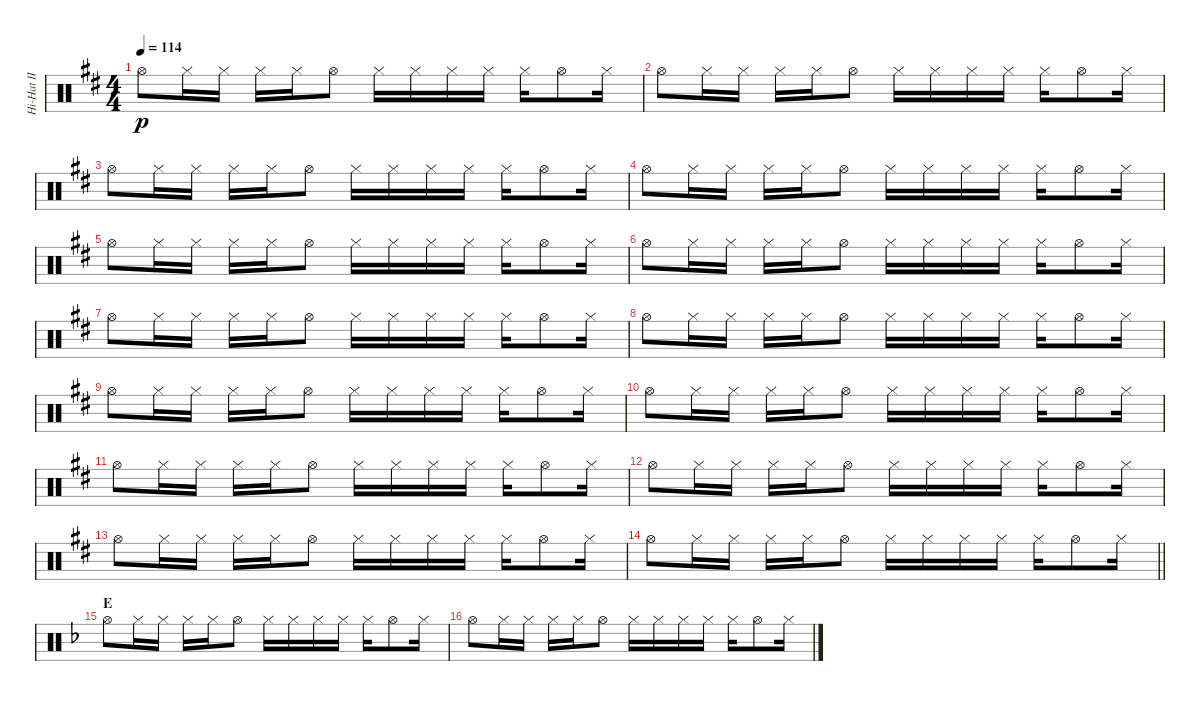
\track ("Hi-Hat II" "Hi-Hat II") {instrument percussion}
\staff {score}
\articulation defaults
\ts (4 4)
\tempo 114
\clef neutral
\ks d "Hi-Hat (open)".8{dy p} "Hi-Hat (closed)".16 "Hi-Hat (closed)".16 "Hi-Hat (closed)".16 "Hi-Hat (closed)".16 "Hi-Hat (open)".8 "Hi-Hat (closed)".16 "Hi-Hat (closed)".16 "Hi-Hat (closed)".16 "Hi-Hat (closed)".16 "Hi-Hat (closed)".16 "Hi-Hat (open)".8 "Hi-Hat (closed)".16
|
"Hi-Hat (open)".8 "Hi-Hat (closed)".16 "Hi-Hat (closed)".16 "Hi-Hat (closed)".16 "Hi-Hat (closed)".16 "Hi-Hat (open)".8 "Hi-Hat (closed)".16 "Hi-Hat (closed)".16 "Hi-Hat (closed)".16 "Hi-Hat (closed)".16 "Hi-Hat (closed)".16 "Hi-Hat (open)".8 "Hi-Hat (closed)".16 |
"Hi-Hat (open)".8 "Hi-Hat (closed)".16 "Hi-Hat (closed)".16 "Hi-Hat (closed)".16 "Hi-Hat (closed)".16 "Hi-Hat (open)".8 "Hi-Hat (closed)".16 "Hi-Hat (closed)".16 "Hi-Hat (closed)".16 "Hi-Hat (closed)".16 "Hi-Hat (closed)".16 "Hi-Hat (open)".8 "Hi-Hat (closed)".16 |
"Hi-Hat (open)".8 "Hi-Hat (closed)".16 "Hi-Hat (closed)".16 "Hi-Hat (closed)".16 "Hi-Hat (closed)".16 "Hi-Hat (open)".8 "Hi-Hat (closed)".16 "Hi-Hat (closed)".16 "Hi-Hat (closed)".16 "Hi-Hat (closed)".16 "Hi-Hat (closed)".16 "Hi-Hat (open)".8 "Hi-Hat (closed)".16 |
"Hi-Hat (open)".8 "Hi-Hat (closed)".16 "Hi-Hat (closed)".16 "Hi-Hat (closed)".16 "Hi-Hat (closed)".16 "Hi-Hat (open)".8 "Hi-Hat (closed)".16 "Hi-Hat (closed)".16 "Hi-Hat (closed)".16 "Hi-Hat (closed)".16 "Hi-Hat (closed)".16 "Hi-Hat (open)".8 "Hi-Hat (closed)".16 |
"Hi-Hat (open)".8 "Hi-Hat (closed)".16 "Hi-Hat (closed)".16 "Hi-Hat (closed)".16 "Hi-Hat (closed)".16 "Hi-Hat (open)".8 "Hi-Hat (closed)".16 "Hi-Hat (closed)".16 "Hi-Hat (closed)".16 "Hi-Hat (closed)".16 "Hi-Hat (closed)".16 "Hi-Hat (open)".8 "Hi-Hat (closed)".16 |
"Hi-Hat (open)".8 "Hi-Hat (closed)".16 "Hi-Hat (closed)".16 "Hi-Hat (closed)".16 "Hi-Hat (closed)".16 "Hi-Hat (open)".8 "Hi-Hat (closed)".16 "Hi-Hat (closed)".16 "Hi-Hat (closed)".16 "Hi-Hat (closed)".16 "Hi-Hat (closed)".16 "Hi-Hat (open)".8 "Hi-Hat (closed)".16 |
"Hi-Hat (open)".8 "Hi-Hat (closed)".16 "Hi-Hat (closed)".16 "Hi-Hat (closed)".16 "Hi-Hat (closed)".16 "Hi-Hat (open)".8 "Hi-Hat (closed)".16 "Hi-Hat (closed)".16 "Hi-Hat (closed)".16 "Hi-Hat (closed)".16 "Hi-Hat (closed)".16 "Hi-Hat (open)".8 "Hi-Hat (closed)".16 |
"Hi-Hat (open)".8 "Hi-Hat (closed)".16 "Hi-Hat (closed)".16 "Hi-Hat (closed)".16 "Hi-Hat (closed)".16 "Hi-Hat (open)".8 "Hi-Hat (closed)".16 "Hi-Hat (closed)".16 "Hi-Hat (closed)".16 "Hi-Hat (closed)".16 "Hi-Hat (closed)".16 "Hi-Hat (open)".8 "Hi-Hat (closed)".16 |
"Hi-Hat (open)".8 "Hi-Hat (closed)".16 "Hi-Hat (closed)".16 "Hi-Hat (closed)".16 "Hi-Hat (closed)".16 "Hi-Hat (open)".8 "Hi-Hat (closed)".16 "Hi-Hat (closed)".16 "Hi-Hat (closed)".16 "Hi-Hat (closed)".16 "Hi-Hat (closed)".16 "Hi-Hat (open)".8 "Hi-Hat (closed)".16 |
"Hi-Hat (open)".8 "Hi-Hat (closed)".16 "Hi-Hat (closed)".16 "Hi-Hat (closed)".16 "Hi-Hat (closed)".16 "Hi-Hat (open)".8 "Hi-Hat (closed)".16 "Hi-Hat (closed)".16 "Hi-Hat (closed)".16 "Hi-Hat (closed)".16 "Hi-Hat (closed)".16 "Hi-Hat (open)".8 "Hi-Hat (closed)".16 |
"Hi-Hat (open)".8 "Hi-Hat (closed)".16 "Hi-Hat (closed)".16 "Hi-Hat (closed)".16 "Hi-Hat (closed)".16 "Hi-Hat (open)".8 "Hi-Hat (closed)".16 "Hi-Hat (closed)".16 "Hi-Hat (closed)".16 "Hi-Hat (closed)".16 "Hi-Hat (closed)".16 "Hi-Hat (open)".8 "Hi-Hat (closed)".16 |
"Hi-Hat (open)".8 "Hi-Hat (closed)".16 "Hi-Hat (closed)".16 "Hi-Hat (closed)".16 "Hi-Hat (closed)".16 "Hi-Hat (open)".8 "Hi-Hat (closed)".16 "Hi-Hat (closed)".16 "Hi-Hat (closed)".16 "Hi-Hat (closed)".16 "Hi-Hat (closed)".16 "Hi-Hat (open)".8 "Hi-Hat (closed)".16 |
\barLineRight lightlight "Hi-Hat (open)".8 "Hi-Hat (closed)".16 "Hi-Hat (closed)".16 "Hi-Hat (closed)".16 "Hi-Hat (closed)".16 "Hi-Hat (open)".8 "Hi-Hat (closed)".16 "Hi-Hat (closed)".16 "Hi-Hat (closed)".16 "Hi-Hat (closed)".16 "Hi-Hat (closed)".16 "Hi-Hat (open)".8 "Hi-Hat (closed)".16
|
\section ("" "E")
\ks f "Hi-Hat (open)".8 "Hi-Hat (closed)".16 "Hi-Hat (closed)".16 "Hi-Hat (closed)".16 "Hi-Hat (closed)".16 "Hi-Hat (open)".8 "Hi-Hat (closed)".16 "Hi-Hat (closed)".16 "Hi-Hat (closed)".16 "Hi-Hat (closed)".16 "Hi-Hat (closed)".16 "Hi-Hat (open)".8 "Hi-Hat (closed)".16
|
"Hi-Hat (open)".8 "Hi-Hat (closed)".16 "Hi-Hat (closed)".16 "Hi-Hat (closed)".16 "Hi-Hat (closed)".16 "Hi-Hat (open)".8 "Hi-Hat (closed)".16 "Hi-Hat (closed)".16 "Hi-Hat (closed)".16 "Hi-Hat (closed)".16 "Hi-Hat (closed)".16 "Hi-Hat (open)".8 "Hi-Hat (closed)".16
